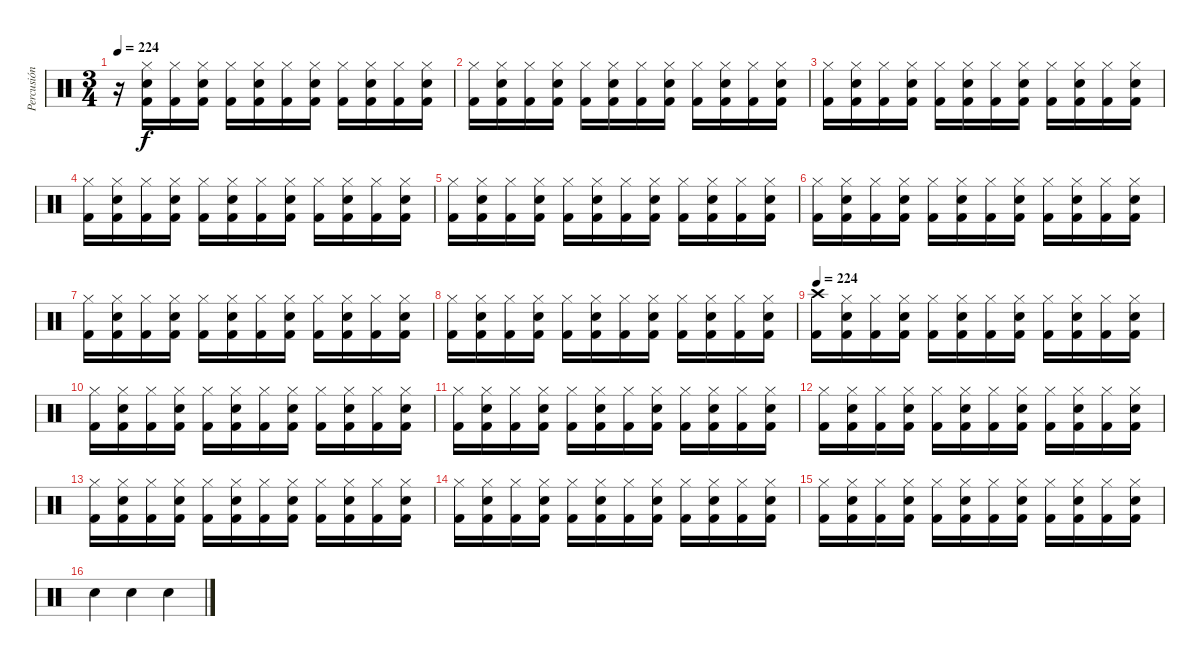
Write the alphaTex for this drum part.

\track ("Percusión" "Percusión") {instrument percussion}
\staff {score}
\articulation defaults
\ts (3 4)
\tempo 224
\clef neutral
\ks c
r.16{dy f} ("Hi-Hat (closed)" "Electric Snare (hit)" "Kick (hit) 2").16 ("Hi-Hat (closed)" "Kick (hit) 2").16 ("Hi-Hat (closed)" "Electric Snare (hit)" "Kick (hit) 2").16 ("Hi-Hat (closed)" "Kick (hit) 2").16 ("Hi-Hat (closed)" "Electric Snare (hit)" "Kick (hit) 2").16 ("Hi-Hat (closed)" "Kick (hit) 2").16 ("Hi-Hat (closed)" "Electric Snare (hit)" "Kick (hit) 2").16 ("Hi-Hat (closed)" "Kick (hit) 2").16 ("Hi-Hat (closed)" "Electric Snare (hit)" "Kick (hit) 2").16 ("Hi-Hat (closed)" "Kick (hit) 2").16 ("Hi-Hat (closed)" "Electric Snare (hit)" "Kick (hit) 2").16 |
("Hi-Hat (closed)" "Kick (hit) 2").16 ("Hi-Hat (closed)" "Electric Snare (hit)" "Kick (hit) 2").16 ("Hi-Hat (closed)" "Kick (hit) 2").16 ("Hi-Hat (closed)" "Electric Snare (hit)" "Kick (hit) 2").16 ("Hi-Hat (closed)" "Kick (hit) 2").16 ("Hi-Hat (closed)" "Electric Snare (hit)" "Kick (hit) 2").16 ("Hi-Hat (closed)" "Kick (hit) 2").16 ("Hi-Hat (closed)" "Electric Snare (hit)" "Kick (hit) 2").16 ("Hi-Hat (closed)" "Kick (hit) 2").16 ("Hi-Hat (closed)" "Electric Snare (hit)" "Kick (hit) 2").16 ("Hi-Hat (closed)" "Kick (hit) 2").16 ("Hi-Hat (closed)" "Electric Snare (hit)" "Kick (hit) 2").16 |
("Hi-Hat (closed)" "Kick (hit) 2").16 ("Hi-Hat (closed)" "Electric Snare (hit)" "Kick (hit) 2").16 ("Hi-Hat (closed)" "Kick (hit) 2").16 ("Hi-Hat (closed)" "Electric Snare (hit)" "Kick (hit) 2").16 ("Hi-Hat (closed)" "Kick (hit) 2").16 ("Hi-Hat (closed)" "Electric Snare (hit)" "Kick (hit) 2").16 ("Hi-Hat (closed)" "Kick (hit) 2").16 ("Hi-Hat (closed)" "Electric Snare (hit)" "Kick (hit) 2").16 ("Hi-Hat (closed)" "Kick (hit) 2").16 ("Hi-Hat (closed)" "Electric Snare (hit)" "Kick (hit) 2").16 ("Hi-Hat (closed)" "Kick (hit) 2").16 ("Hi-Hat (closed)" "Electric Snare (hit)" "Kick (hit) 2").16 |
("Hi-Hat (closed)" "Kick (hit) 2").16 ("Hi-Hat (closed)" "Electric Snare (hit)" "Kick (hit) 2").16 ("Hi-Hat (closed)" "Kick (hit) 2").16 ("Hi-Hat (closed)" "Electric Snare (hit)" "Kick (hit) 2").16 ("Hi-Hat (closed)" "Kick (hit) 2").16 ("Hi-Hat (closed)" "Electric Snare (hit)" "Kick (hit) 2").16 ("Hi-Hat (closed)" "Kick (hit) 2").16 ("Hi-Hat (closed)" "Electric Snare (hit)" "Kick (hit) 2").16 ("Hi-Hat (closed)" "Kick (hit) 2").16 ("Hi-Hat (closed)" "Electric Snare (hit)" "Kick (hit) 2").16 ("Hi-Hat (closed)" "Kick (hit) 2").16 ("Hi-Hat (closed)" "Electric Snare (hit)" "Kick (hit) 2").16 |
("Hi-Hat (closed)" "Kick (hit) 2").16 ("Hi-Hat (closed)" "Electric Snare (hit)" "Kick (hit) 2").16 ("Hi-Hat (closed)" "Kick (hit) 2").16 ("Hi-Hat (closed)" "Electric Snare (hit)" "Kick (hit) 2").16 ("Hi-Hat (closed)" "Kick (hit) 2").16 ("Hi-Hat (closed)" "Electric Snare (hit)" "Kick (hit) 2").16 ("Hi-Hat (closed)" "Kick (hit) 2").16 ("Hi-Hat (closed)" "Electric Snare (hit)" "Kick (hit) 2").16 ("Hi-Hat (closed)" "Kick (hit) 2").16 ("Hi-Hat (closed)" "Electric Snare (hit)" "Kick (hit) 2").16 ("Hi-Hat (closed)" "Kick (hit) 2").16 ("Hi-Hat (closed)" "Electric Snare (hit)" "Kick (hit) 2").16 |
("Hi-Hat (closed)" "Kick (hit) 2").16 ("Hi-Hat (closed)" "Electric Snare (hit)" "Kick (hit) 2").16 ("Hi-Hat (closed)" "Kick (hit) 2").16 ("Hi-Hat (closed)" "Electric Snare (hit)" "Kick (hit) 2").16 ("Hi-Hat (closed)" "Kick (hit) 2").16 ("Hi-Hat (closed)" "Electric Snare (hit)" "Kick (hit) 2").16 ("Hi-Hat (closed)" "Kick (hit) 2").16 ("Hi-Hat (closed)" "Electric Snare (hit)" "Kick (hit) 2").16 ("Hi-Hat (closed)" "Kick (hit) 2").16 ("Hi-Hat (closed)" "Electric Snare (hit)" "Kick (hit) 2").16 ("Hi-Hat (closed)" "Kick (hit) 2").16 ("Hi-Hat (closed)" "Electric Snare (hit)" "Kick (hit) 2").16 |
("Hi-Hat (closed)" "Kick (hit) 2").16 ("Hi-Hat (closed)" "Electric Snare (hit)" "Kick (hit) 2").16 ("Hi-Hat (closed)" "Kick (hit) 2").16 ("Hi-Hat (closed)" "Electric Snare (hit)" "Kick (hit) 2").16 ("Hi-Hat (closed)" "Kick (hit) 2").16 ("Hi-Hat (closed)" "Electric Snare (hit)" "Kick (hit) 2").16 ("Hi-Hat (closed)" "Kick (hit) 2").16 ("Hi-Hat (closed)" "Electric Snare (hit)" "Kick (hit) 2").16 ("Hi-Hat (closed)" "Kick (hit) 2").16 ("Hi-Hat (closed)" "Electric Snare (hit)" "Kick (hit) 2").16 ("Hi-Hat (closed)" "Kick (hit) 2").16 ("Hi-Hat (closed)" "Electric Snare (hit)" "Kick (hit) 2").16 |
("Hi-Hat (closed)" "Kick (hit) 2").16 ("Hi-Hat (closed)" "Electric Snare (hit)" "Kick (hit) 2").16 ("Hi-Hat (closed)" "Kick (hit) 2").16 ("Hi-Hat (closed)" "Electric Snare (hit)" "Kick (hit) 2").16 ("Hi-Hat (closed)" "Kick (hit) 2").16 ("Hi-Hat (closed)" "Electric Snare (hit)" "Kick (hit) 2").16 ("Hi-Hat (closed)" "Kick (hit) 2").16 ("Hi-Hat (closed)" "Electric Snare (hit)" "Kick (hit) 2").16 ("Hi-Hat (closed)" "Kick (hit) 2").16 ("Hi-Hat (closed)" "Electric Snare (hit)" "Kick (hit) 2").16 ("Hi-Hat (closed)" "Kick (hit) 2").16 ("Hi-Hat (closed)" "Electric Snare (hit)" "Kick (hit) 2").16 |
\tempo 224
("Crash high (hit)" "Kick (hit) 2").16 ("Hi-Hat (closed)" "Electric Snare (hit)" "Kick (hit) 2").16 ("Hi-Hat (closed)" "Kick (hit) 2").16 ("Hi-Hat (closed)" "Electric Snare (hit)" "Kick (hit) 2").16 ("Hi-Hat (closed)" "Kick (hit) 2").16 ("Hi-Hat (closed)" "Electric Snare (hit)" "Kick (hit) 2").16 ("Hi-Hat (closed)" "Kick (hit) 2").16 ("Hi-Hat (closed)" "Electric Snare (hit)" "Kick (hit) 2").16 ("Hi-Hat (closed)" "Kick (hit) 2").16 ("Hi-Hat (closed)" "Electric Snare (hit)" "Kick (hit) 2").16 ("Hi-Hat (closed)" "Kick (hit) 2").16 ("Hi-Hat (closed)" "Electric Snare (hit)" "Kick (hit) 2").16 |
("Hi-Hat (closed)" "Kick (hit) 2").16 ("Hi-Hat (closed)" "Electric Snare (hit)" "Kick (hit) 2").16 ("Hi-Hat (closed)" "Kick (hit) 2").16 ("Hi-Hat (closed)" "Electric Snare (hit)" "Kick (hit) 2").16 ("Hi-Hat (closed)" "Kick (hit) 2").16 ("Hi-Hat (closed)" "Electric Snare (hit)" "Kick (hit) 2").16 ("Hi-Hat (closed)" "Kick (hit) 2").16 ("Hi-Hat (closed)" "Electric Snare (hit)" "Kick (hit) 2").16 ("Hi-Hat (closed)" "Kick (hit) 2").16 ("Hi-Hat (closed)" "Electric Snare (hit)" "Kick (hit) 2").16 ("Hi-Hat (closed)" "Kick (hit) 2").16 ("Hi-Hat (closed)" "Electric Snare (hit)" "Kick (hit) 2").16 |
("Hi-Hat (closed)" "Kick (hit) 2").16 ("Hi-Hat (closed)" "Electric Snare (hit)" "Kick (hit) 2").16 ("Hi-Hat (closed)" "Kick (hit) 2").16 ("Hi-Hat (closed)" "Electric Snare (hit)" "Kick (hit) 2").16 ("Hi-Hat (closed)" "Kick (hit) 2").16 ("Hi-Hat (closed)" "Electric Snare (hit)" "Kick (hit) 2").16 ("Hi-Hat (closed)" "Kick (hit) 2").16 ("Hi-Hat (closed)" "Electric Snare (hit)" "Kick (hit) 2").16 ("Hi-Hat (closed)" "Kick (hit) 2").16 ("Hi-Hat (closed)" "Electric Snare (hit)" "Kick (hit) 2").16 ("Hi-Hat (closed)" "Kick (hit) 2").16 ("Hi-Hat (closed)" "Electric Snare (hit)" "Kick (hit) 2").16 |
("Hi-Hat (closed)" "Kick (hit) 2").16 ("Hi-Hat (closed)" "Electric Snare (hit)" "Kick (hit) 2").16 ("Hi-Hat (closed)" "Kick (hit) 2").16 ("Hi-Hat (closed)" "Electric Snare (hit)" "Kick (hit) 2").16 ("Hi-Hat (closed)" "Kick (hit) 2").16 ("Hi-Hat (closed)" "Electric Snare (hit)" "Kick (hit) 2").16 ("Hi-Hat (closed)" "Kick (hit) 2").16 ("Hi-Hat (closed)" "Electric Snare (hit)" "Kick (hit) 2").16 ("Hi-Hat (closed)" "Kick (hit) 2").16 ("Hi-Hat (closed)" "Electric Snare (hit)" "Kick (hit) 2").16 ("Hi-Hat (closed)" "Kick (hit) 2").16 ("Hi-Hat (closed)" "Electric Snare (hit)" "Kick (hit) 2").16 |
("Hi-Hat (closed)" "Kick (hit) 2").16 ("Hi-Hat (closed)" "Electric Snare (hit)" "Kick (hit) 2").16 ("Hi-Hat (closed)" "Kick (hit) 2").16 ("Hi-Hat (closed)" "Electric Snare (hit)" "Kick (hit) 2").16 ("Hi-Hat (closed)" "Kick (hit) 2").16 ("Hi-Hat (closed)" "Electric Snare (hit)" "Kick (hit) 2").16 ("Hi-Hat (closed)" "Kick (hit) 2").16 ("Hi-Hat (closed)" "Electric Snare (hit)" "Kick (hit) 2").16 ("Hi-Hat (closed)" "Kick (hit) 2").16 ("Hi-Hat (closed)" "Electric Snare (hit)" "Kick (hit) 2").16 ("Hi-Hat (closed)" "Kick (hit) 2").16 ("Hi-Hat (closed)" "Electric Snare (hit)" "Kick (hit) 2").16 |
("Hi-Hat (closed)" "Kick (hit) 2").16 ("Hi-Hat (closed)" "Electric Snare (hit)" "Kick (hit) 2").16 ("Hi-Hat (closed)" "Kick (hit) 2").16 ("Hi-Hat (closed)" "Electric Snare (hit)" "Kick (hit) 2").16 ("Hi-Hat (closed)" "Kick (hit) 2").16 ("Hi-Hat (closed)" "Electric Snare (hit)" "Kick (hit) 2").16 ("Hi-Hat (closed)" "Kick (hit) 2").16 ("Hi-Hat (closed)" "Electric Snare (hit)" "Kick (hit) 2").16 ("Hi-Hat (closed)" "Kick (hit) 2").16 ("Hi-Hat (closed)" "Electric Snare (hit)" "Kick (hit) 2").16 ("Hi-Hat (closed)" "Kick (hit) 2").16 ("Hi-Hat (closed)" "Electric Snare (hit)" "Kick (hit) 2").16 |
("Hi-Hat (closed)" "Kick (hit) 2").16 ("Hi-Hat (closed)" "Electric Snare (hit)" "Kick (hit) 2").16 ("Hi-Hat (closed)" "Kick (hit) 2").16 ("Hi-Hat (closed)" "Electric Snare (hit)" "Kick (hit) 2").16 ("Hi-Hat (closed)" "Kick (hit) 2").16 ("Hi-Hat (closed)" "Electric Snare (hit)" "Kick (hit) 2").16 ("Hi-Hat (closed)" "Kick (hit) 2").16 ("Hi-Hat (closed)" "Electric Snare (hit)" "Kick (hit) 2").16 ("Hi-Hat (closed)" "Kick (hit) 2").16 ("Hi-Hat (closed)" "Electric Snare (hit)" "Kick (hit) 2").16 ("Hi-Hat (closed)" "Kick (hit) 2").16 ("Hi-Hat (closed)" "Electric Snare (hit)" "Kick (hit) 2").16 |
"Electric Snare (hit)".4 "Electric Snare (hit)".4 "Electric Snare (hit)".4
